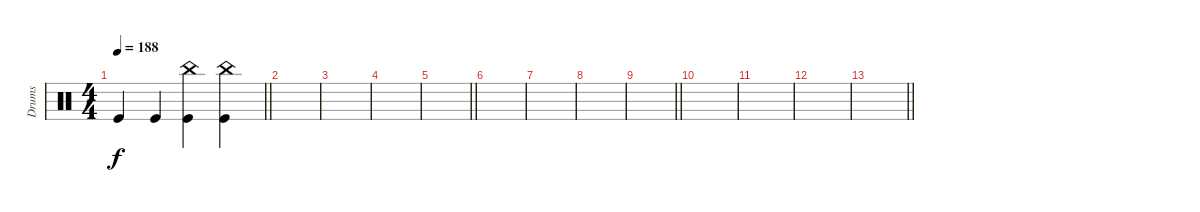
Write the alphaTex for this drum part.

\track ("Drums" "Drums") {instrument percussion}
\staff
\articulation defaults
\ts (4 4)
\tempo 188
\clef neutral
\barLineRight lightlight
\ks c "Kick (hit)".4{dy f} "Kick (hit)".4
("China (hit)" "Kick (hit)").4 ("China (hit)" "Kick (hit)").4 |
\section ("" "")
|
|
|
\barLineRight lightlight
|
|
|
|
\barLineRight lightlight
|
|
|
|
\barLineRight lightlight
